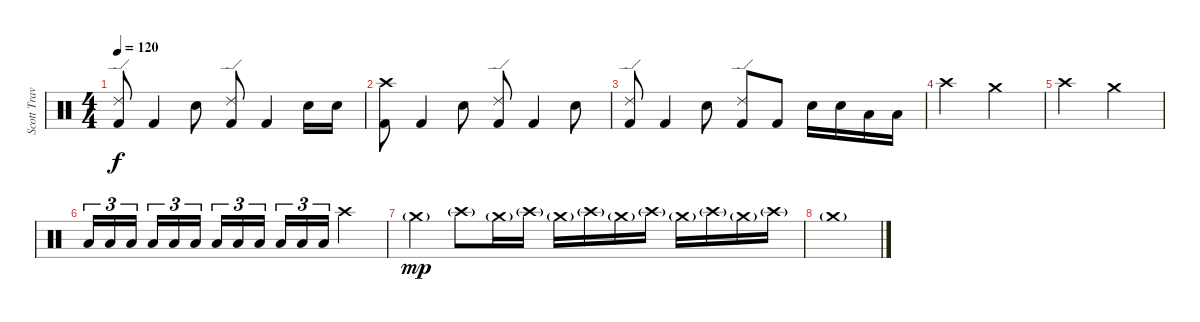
\track ("Scott Travis" "Scott Trav") {instrument percussion}
\staff {score}
\articulation defaults
\ts (4 4)
\tempo 120
\clef neutral
\ks c
("Ride (edge) 2" "Kick (hit) 2").8{dy f} "Kick (hit) 2".4 "Electric Snare (hit)".8 ("Ride (edge) 2" "Kick (hit) 2").8 "Kick (hit) 2".4 "Electric Snare (hit)".16 "Electric Snare (hit)".16 |
("Crash high (hit)" "Kick (hit) 2").8 "Kick (hit) 2".4 "Electric Snare (hit)".8 ("Ride (edge) 2" "Kick (hit) 2").8 "Kick (hit) 2".4 "Electric Snare (hit)".8 |
("Ride (edge) 2" "Kick (hit) 2").8 "Kick (hit) 2".4 "Electric Snare (hit)".8 ("Ride (edge) 2" "Kick (hit) 2").8 "Kick (hit) 2".8 "Electric Snare (hit)".16 "Electric Snare (hit)".16 "Low Floor Tom (hit)".16 "Low Floor Tom (hit)".16 |
"Crash high (hit)".2 "Crash medium (hit)".2 |
"Crash high (hit)".2 "Crash medium (hit)".2 |
"Low Floor Tom (hit)".16{tu (3 2)} "Low Floor Tom (hit)".16{tu (3 2)} "Low Floor Tom (hit)".16{tu (3 2) beam splitsecondary} "Low Floor Tom (hit)".16{tu (3 2)} "Low Floor Tom (hit)".16{tu (3 2)} "Low Floor Tom (hit)".16{tu (3 2)} "Low Tom (hit)".16{tu (3 2)} "Low Tom (hit)".16{tu (3 2)} "Low Tom (hit)".16{tu (3 2) beam splitsecondary} "Low Tom (hit)".16{tu (3 2)} "Low Tom (hit)".16{tu (3 2)} "Low Tom (hit)".16{tu (3 2)} "Crash high (hit)".2 |
"Crash medium (hit)"{g}.4{dy mp} "Crash high (hit)"{g}.8 "Crash medium (hit)"{g}.16 "Crash high (hit)"{g}.16 "Crash medium (hit)"{g}.16 "Crash high (hit)"{g}.16 "Crash medium (hit)"{g}.16 "Crash high (hit)"{g}.16 "Crash medium (hit)"{g}.16 "Crash high (hit)"{g}.16 "Crash medium (hit)"{g}.16 "Crash high (hit)"{g}.16 |
"Crash medium (hit)"{g}.1
